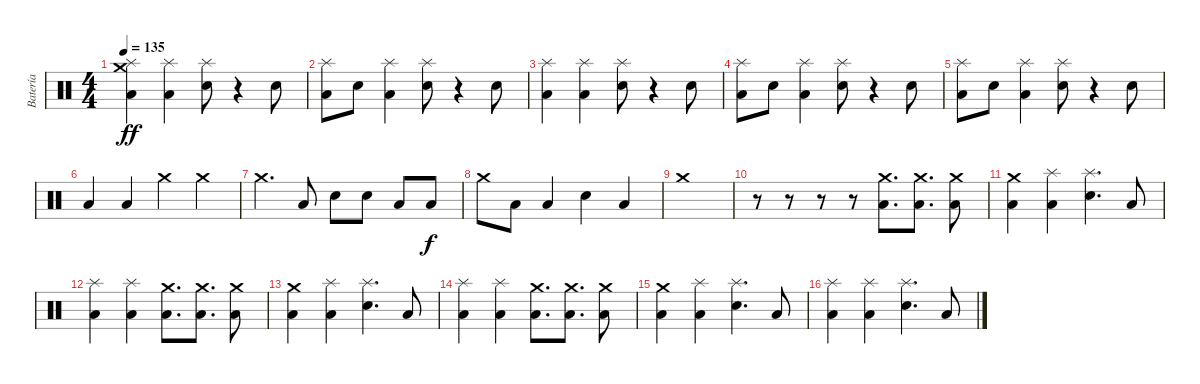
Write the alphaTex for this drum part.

\track ("Batería" "Batería") {instrument percussion}
\staff {score}
\articulation defaults
\ts (4 4)
\tempo 135
\clef neutral
\ks c
("Crash medium (hit)" "Splash (hit)" "Low Floor Tom (hit)").4{dy ff} ("Splash (hit)" "Low Floor Tom (hit)").4 ("Splash (hit)" "Electric Snare (hit)").8 r.4 "Electric Snare (hit)".8 |
("Splash (hit)" "Low Floor Tom (hit)").8 "Electric Snare (hit)".8 ("Splash (hit)" "Low Floor Tom (hit)").4 ("Splash (hit)" "Electric Snare (hit)").8 r.4 "Electric Snare (hit)".8 |
("Splash (hit)" "Low Floor Tom (hit)").4 ("Splash (hit)" "Low Floor Tom (hit)").4 ("Splash (hit)" "Electric Snare (hit)").8 r.4 "Electric Snare (hit)".8 |
("Splash (hit)" "Low Floor Tom (hit)").8 "Electric Snare (hit)".8 ("Splash (hit)" "Low Floor Tom (hit)").4 ("Splash (hit)" "Electric Snare (hit)").8 r.4 "Electric Snare (hit)".8 |
("Splash (hit)" "Low Floor Tom (hit)").8 "Electric Snare (hit)".8 ("Splash (hit)" "Low Floor Tom (hit)").4 ("Splash (hit)" "Electric Snare (hit)").8 r.4 "Electric Snare (hit)".8 |
"Low Floor Tom (hit)".4 "Low Floor Tom (hit)".4 "Crash medium (hit)".4 "Crash medium (hit)".4 |
"Crash medium (hit)".4{d} "Low Floor Tom (hit)".8 "Electric Snare (hit)".8 "Electric Snare (hit)".8 "Low Floor Tom (hit)".8 "Low Floor Tom (hit)".8{dy f} |
"Crash medium (hit)".8 "Low Floor Tom (hit)".8 "Low Floor Tom (hit)".4 "Electric Snare (hit)".4 "Low Floor Tom (hit)".4 |
"Crash medium (hit)".1 |
r.8 r.8 r.8 r.8 ("Crash medium (hit)" "Low Floor Tom (hit)").8{d} ("Crash medium (hit)" "Low Floor Tom (hit)").8{d} ("Crash medium (hit)" "Low Floor Tom (hit)").8 |
("Crash medium (hit)" "Low Floor Tom (hit)").4 ("Splash (hit)" "Low Floor Tom (hit)").4 ("Splash (hit)" "Electric Snare (hit)").4{d} "Low Floor Tom (hit)".8 |
("Splash (hit)" "Low Floor Tom (hit)").4 ("Splash (hit)" "Low Floor Tom (hit)").4 ("Crash medium (hit)" "Low Floor Tom (hit)").8{d} ("Crash medium (hit)" "Low Floor Tom (hit)").8{d} ("Crash medium (hit)" "Low Floor Tom (hit)").8 |
("Crash medium (hit)" "Low Floor Tom (hit)").4 ("Splash (hit)" "Low Floor Tom (hit)").4 ("Splash (hit)" "Electric Snare (hit)").4{d} "Low Floor Tom (hit)".8 |
("Splash (hit)" "Low Floor Tom (hit)").4 ("Splash (hit)" "Low Floor Tom (hit)").4 ("Crash medium (hit)" "Low Floor Tom (hit)").8{d} ("Crash medium (hit)" "Low Floor Tom (hit)").8{d} ("Crash medium (hit)" "Low Floor Tom (hit)").8 |
("Crash medium (hit)" "Low Floor Tom (hit)").4 ("Splash (hit)" "Low Floor Tom (hit)").4 ("Splash (hit)" "Electric Snare (hit)").4{d} "Low Floor Tom (hit)".8 |
("Splash (hit)" "Low Floor Tom (hit)").4 ("Splash (hit)" "Low Floor Tom (hit)").4 ("Splash (hit)" "Electric Snare (hit)").4{d} "Low Floor Tom (hit)".8
